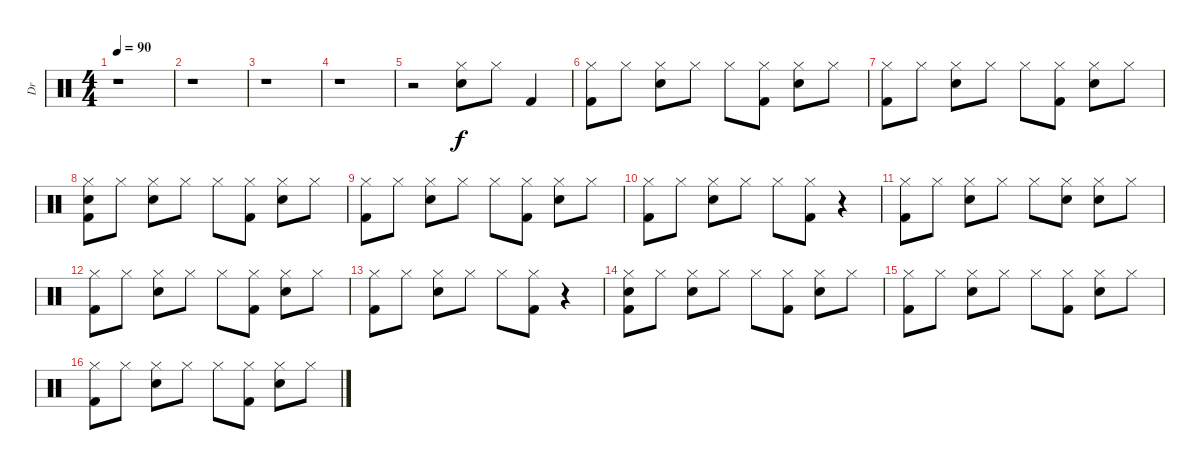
\track ("Dr" "Dr") {instrument percussion}
\staff {score}
\articulation defaults
\ts (4 4)
\tempo 90
\clef neutral
\ks c
r.1{dy f} |
r.1 |
r.1 |
r.1 |
r.2 ("Hi-Hat (closed)" "Electric Snare (hit)").8 "Hi-Hat (closed)".8 "Kick (hit) 2".4 |
("Hi-Hat (closed)" "Kick (hit) 2").8 "Hi-Hat (closed)".8 ("Hi-Hat (closed)" "Electric Snare (hit)").8 "Hi-Hat (closed)".8 "Hi-Hat (closed)".8 ("Hi-Hat (closed)" "Kick (hit) 2").8 ("Hi-Hat (closed)" "Electric Snare (hit)").8 "Hi-Hat (closed)".8 |
("Hi-Hat (closed)" "Kick (hit) 2").8 "Hi-Hat (closed)".8 ("Hi-Hat (closed)" "Electric Snare (hit)").8 "Hi-Hat (closed)".8 "Hi-Hat (closed)".8 ("Hi-Hat (closed)" "Kick (hit) 2").8 ("Hi-Hat (closed)" "Electric Snare (hit)").8 "Hi-Hat (closed)".8 |
("Hi-Hat (closed)" "Electric Snare (hit)" "Kick (hit) 2").8 "Hi-Hat (closed)".8 ("Hi-Hat (closed)" "Electric Snare (hit)").8 "Hi-Hat (closed)".8 "Hi-Hat (closed)".8 ("Hi-Hat (closed)" "Kick (hit) 2").8 ("Hi-Hat (closed)" "Electric Snare (hit)").8 "Hi-Hat (closed)".8 |
("Hi-Hat (closed)" "Kick (hit) 2").8 "Hi-Hat (closed)".8 ("Hi-Hat (closed)" "Electric Snare (hit)").8 "Hi-Hat (closed)".8 "Hi-Hat (closed)".8 ("Hi-Hat (closed)" "Kick (hit) 2").8 ("Hi-Hat (closed)" "Electric Snare (hit)").8 "Hi-Hat (closed)".8 |
("Hi-Hat (closed)" "Kick (hit) 2").8 "Hi-Hat (closed)".8 ("Hi-Hat (closed)" "Electric Snare (hit)").8 "Hi-Hat (closed)".8 "Hi-Hat (closed)".8 ("Hi-Hat (closed)" "Kick (hit) 2").8 r.4 |
("Hi-Hat (closed)" "Kick (hit) 2").8 "Hi-Hat (closed)".8 ("Hi-Hat (closed)" "Electric Snare (hit)").8 "Hi-Hat (closed)".8 "Hi-Hat (closed)".8 ("Hi-Hat (closed)" "Electric Snare (hit)").8 ("Hi-Hat (closed)" "Electric Snare (hit)").8 "Hi-Hat (closed)".8 |
("Hi-Hat (closed)" "Kick (hit) 2").8 "Hi-Hat (closed)".8 ("Hi-Hat (closed)" "Electric Snare (hit)").8 "Hi-Hat (closed)".8 "Hi-Hat (closed)".8 ("Hi-Hat (closed)" "Kick (hit) 2").8 ("Hi-Hat (closed)" "Electric Snare (hit)").8 "Hi-Hat (closed)".8 |
("Hi-Hat (closed)" "Kick (hit) 2").8 "Hi-Hat (closed)".8 ("Hi-Hat (closed)" "Electric Snare (hit)").8 "Hi-Hat (closed)".8 "Hi-Hat (closed)".8 ("Hi-Hat (closed)" "Kick (hit) 2").8 r.4 |
("Hi-Hat (closed)" "Electric Snare (hit)" "Kick (hit) 2").8 "Hi-Hat (closed)".8 ("Hi-Hat (closed)" "Electric Snare (hit)").8 "Hi-Hat (closed)".8 "Hi-Hat (closed)".8 ("Hi-Hat (closed)" "Kick (hit) 2").8 ("Hi-Hat (closed)" "Electric Snare (hit)").8 "Hi-Hat (closed)".8 |
("Hi-Hat (closed)" "Kick (hit) 2").8 "Hi-Hat (closed)".8 ("Hi-Hat (closed)" "Electric Snare (hit)").8 "Hi-Hat (closed)".8 "Hi-Hat (closed)".8 ("Hi-Hat (closed)" "Kick (hit) 2").8 ("Hi-Hat (closed)" "Electric Snare (hit)").8 "Hi-Hat (closed)".8 |
("Hi-Hat (closed)" "Kick (hit) 2").8 "Hi-Hat (closed)".8 ("Hi-Hat (closed)" "Electric Snare (hit)").8 "Hi-Hat (closed)".8 "Hi-Hat (closed)".8 ("Hi-Hat (closed)" "Kick (hit) 2").8 ("Hi-Hat (closed)" "Electric Snare (hit)").8 "Hi-Hat (closed)".8
